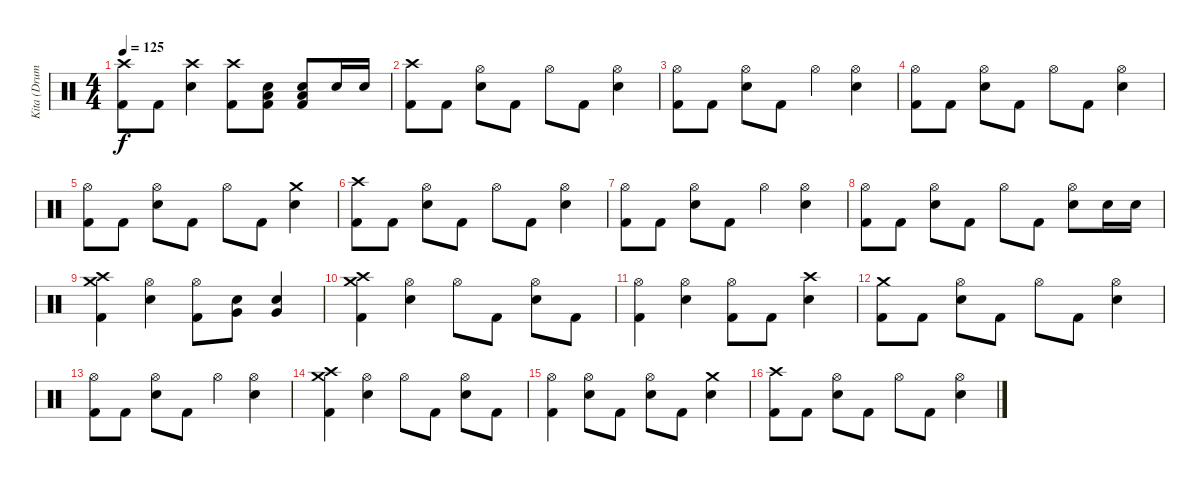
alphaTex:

\track ("Kita (Drums)" "Kita (Drum") {instrument percussion}
\staff {score}
\articulation defaults
\ts (4 4)
\tempo 125
\clef neutral
\ks c
("Crash high (hit)" "Kick (hit) 2").8{dy f} "Kick (hit) 2".8 ("Crash high (hit)" "Electric Snare (hit)").4 ("Crash high (hit)" "Kick (hit) 2").8 ("Low Floor Tom (hit)" "Electric Snare (hit)" "Kick (hit) 2").8 ("Low Floor Tom (hit)" "Electric Snare (hit)" "Kick (hit) 2").8 "Electric Snare (hit)".16 "Electric Snare (hit)".16 |
("Crash high (hit)" "Kick (hit) 2").8 "Kick (hit) 2".8 ("Hi-Hat (open)" "Electric Snare (hit)").8 "Kick (hit) 2".8 "Hi-Hat (open)".8 "Kick (hit) 2".8 ("Hi-Hat (open)" "Electric Snare (hit)").4 |
("Hi-Hat (open)" "Kick (hit) 2").8 "Kick (hit) 2".8 ("Hi-Hat (open)" "Electric Snare (hit)").8 "Kick (hit) 2".8 "Hi-Hat (open)".4 ("Hi-Hat (open)" "Electric Snare (hit)").4 |
("Hi-Hat (open)" "Kick (hit) 2").8 "Kick (hit) 2".8 ("Hi-Hat (open)" "Electric Snare (hit)").8 "Kick (hit) 2".8 "Hi-Hat (open)".8 "Kick (hit) 2".8 ("Hi-Hat (open)" "Electric Snare (hit)").4 |
("Hi-Hat (open)" "Kick (hit) 2").8 "Kick (hit) 2".8 ("Hi-Hat (open)" "Electric Snare (hit)").8 "Kick (hit) 2".8 "Hi-Hat (open)".8 "Kick (hit) 2".8 ("Crash medium (hit)" "Electric Snare (hit)").4 |
("Crash high (hit)" "Kick (hit) 2").8 "Kick (hit) 2".8 ("Hi-Hat (open)" "Electric Snare (hit)").8 "Kick (hit) 2".8 "Hi-Hat (open)".8 "Kick (hit) 2".8 ("Hi-Hat (open)" "Electric Snare (hit)").4 |
("Hi-Hat (open)" "Kick (hit) 2").8 "Kick (hit) 2".8 ("Hi-Hat (open)" "Electric Snare (hit)").8 "Kick (hit) 2".8 "Hi-Hat (open)".4 ("Hi-Hat (open)" "Electric Snare (hit)").4 |
("Hi-Hat (open)" "Kick (hit) 2").8 "Kick (hit) 2".8 ("Hi-Hat (open)" "Electric Snare (hit)").8 "Kick (hit) 2".8 "Hi-Hat (open)".8 "Kick (hit) 2".8 ("Hi-Hat (open)" "Electric Snare (hit)").8 "Electric Snare (hit)".16 "Electric Snare (hit)".16 |
("Crash medium (hit)" "Crash high (hit)" "Kick (hit) 2").4 ("Hi-Hat (open)" "Electric Snare (hit)").4 ("Hi-Hat (open)" "Kick (hit) 2").8 ("Very Low Tom (hit)" "Electric Snare (hit)").8 ("Very Low Tom (hit)" "Electric Snare (hit)").4 |
("Crash medium (hit)" "Crash high (hit)" "Kick (hit) 2").4 ("Hi-Hat (open)" "Electric Snare (hit)").4 "Hi-Hat (open)".8 "Kick (hit) 2".8 ("Hi-Hat (open)" "Electric Snare (hit)").8 "Kick (hit) 2".8 |
("Hi-Hat (open)" "Kick (hit) 2").4 ("Hi-Hat (open)" "Electric Snare (hit)").4 ("Hi-Hat (open)" "Kick (hit) 2").8 "Kick (hit) 2".8 ("Crash high (hit)" "Electric Snare (hit)").4 |
("Crash medium (hit)" "Kick (hit) 2").8 "Kick (hit) 2".8 ("Hi-Hat (open)" "Electric Snare (hit)").8 "Kick (hit) 2".8 "Hi-Hat (open)".8 "Kick (hit) 2".8 ("Hi-Hat (open)" "Electric Snare (hit)").4 |
("Hi-Hat (open)" "Kick (hit) 2").8 "Kick (hit) 2".8 ("Hi-Hat (open)" "Electric Snare (hit)").8 "Kick (hit) 2".8 "Hi-Hat (open)".4 ("Hi-Hat (open)" "Electric Snare (hit)").4 |
("Crash medium (hit)" "Crash high (hit)" "Kick (hit) 2").4 ("Hi-Hat (open)" "Electric Snare (hit)").4 "Hi-Hat (open)".8 "Kick (hit) 2".8 ("Hi-Hat (open)" "Electric Snare (hit)").8 "Kick (hit) 2".8 |
("Hi-Hat (open)" "Kick (hit) 2").4 ("Hi-Hat (open)" "Electric Snare (hit)").8 "Kick (hit) 2".8 ("Hi-Hat (open)" "Electric Snare (hit)").8 "Kick (hit) 2".8 ("Crash medium (hit)" "Electric Snare (hit)").4 |
("Crash high (hit)" "Kick (hit) 2").8 "Kick (hit) 2".8 ("Hi-Hat (open)" "Electric Snare (hit)").8 "Kick (hit) 2".8 "Hi-Hat (open)".8 "Kick (hit) 2".8 ("Hi-Hat (open)" "Electric Snare (hit)").4
